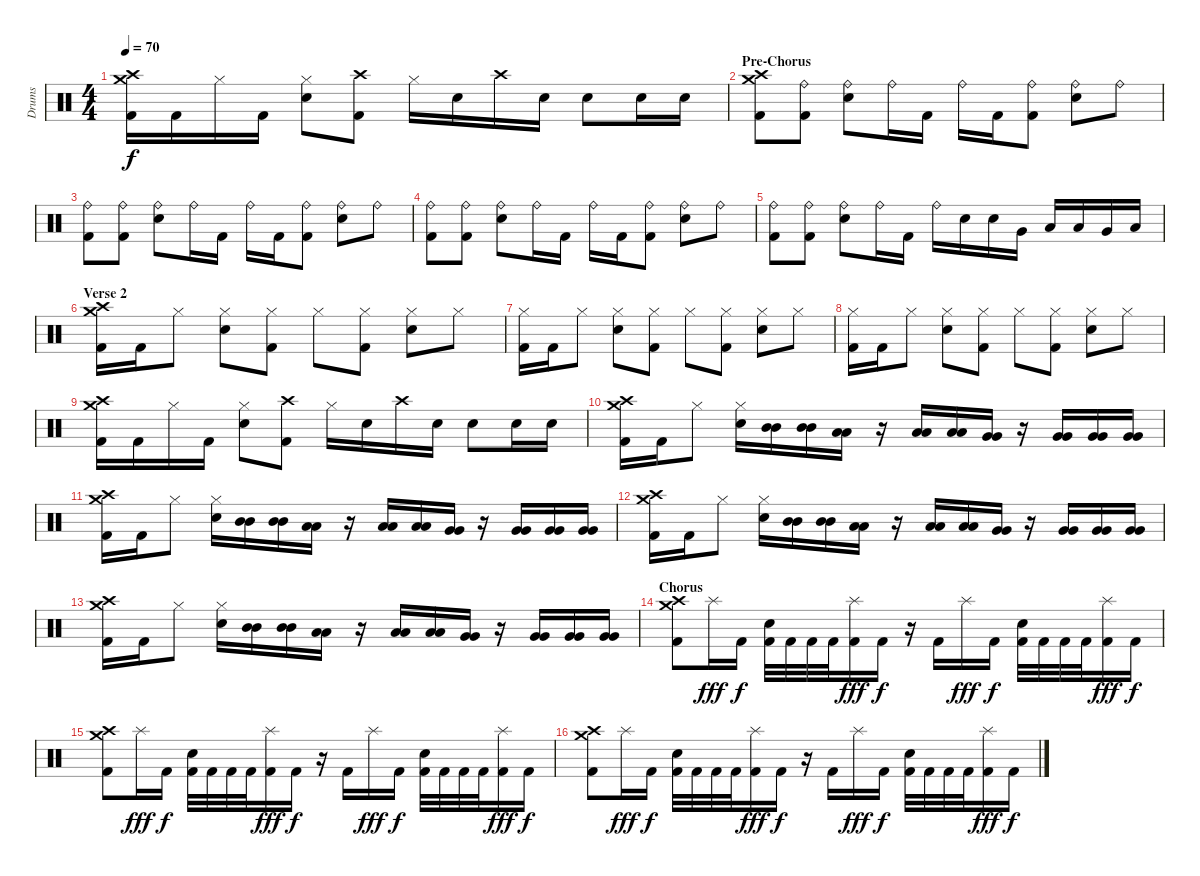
\track ("Drums" "Drums") {instrument percussion}
\staff {score}
\articulation defaults
\ts (4 4)
\tempo 70
\clef neutral
\ks c
("Crash high (hit)" "Crash medium (hit)" "Kick (hit) 2").16{dy f} "Kick (hit) 2".16 "Hi-Hat (closed)".16 "Kick (hit) 2".16 ("Hi-Hat (closed)" "Electric Snare (hit)").8 ("Crash high (hit)" "Kick (hit) 2").8 "Hi-Hat (closed)".16 "Electric Snare (hit)".16 "Crash high (hit)".16 "Electric Snare (hit)".16 "Electric Snare (hit)".8 "Electric Snare (hit)".16 "Electric Snare (hit)".16 |
\section ("" "Pre-Chorus")
("Crash high (hit)" "Crash medium (hit)" "Kick (hit) 2").8 ("Ride (bell)" "Kick (hit) 2").8 ("Ride (bell)" "Electric Snare (hit)").8 "Ride (bell)".16 "Kick (hit) 2".16 "Ride (bell)".16 "Kick (hit) 2".16 ("Ride (bell)" "Kick (hit) 2").8 ("Ride (bell)" "Electric Snare (hit)").8 "Ride (bell)".8 |
("Ride (bell)" "Kick (hit) 2").8 ("Ride (bell)" "Kick (hit) 2").8 ("Ride (bell)" "Electric Snare (hit)").8 "Ride (bell)".16 "Kick (hit) 2".16 "Ride (bell)".16 "Kick (hit) 2".16 ("Ride (bell)" "Kick (hit) 2").8 ("Ride (bell)" "Electric Snare (hit)").8 "Ride (bell)".8 |
("Ride (bell)" "Kick (hit) 2").8 ("Ride (bell)" "Kick (hit) 2").8 ("Ride (bell)" "Electric Snare (hit)").8 "Ride (bell)".16 "Kick (hit) 2".16 "Ride (bell)".16 "Kick (hit) 2".16 ("Ride (bell)" "Kick (hit) 2").8 ("Ride (bell)" "Electric Snare (hit)").8 "Ride (bell)".8 |
("Ride (bell)" "Kick (hit) 2").8 ("Ride (bell)" "Kick (hit) 2").8 ("Ride (bell)" "Electric Snare (hit)").8 "Ride (bell)".16 "Kick (hit) 2".16 "Ride (bell)".16 "Electric Snare (hit)".16 "Electric Snare (hit)".16 "Very Low Tom (hit)".16 "Low Tom (hit)".16 "Low Tom (hit)".16 "Very Low Tom (hit)".16 "Low Floor Tom (hit)".16 |
\section ("" "Verse 2")
("Crash high (hit)" "Crash medium (hit)" "Kick (hit) 2").16 "Kick (hit) 2".16 "Hi-Hat (closed)".8 ("Hi-Hat (closed)" "Electric Snare (hit)").8 ("Hi-Hat (closed)" "Kick (hit) 2").8 "Hi-Hat (closed)".8 ("Hi-Hat (closed)" "Kick (hit) 2").8 ("Hi-Hat (closed)" "Electric Snare (hit)").8 "Hi-Hat (closed)".8 |
("Hi-Hat (closed)" "Kick (hit) 2").16 "Kick (hit) 2".16 "Hi-Hat (closed)".8 ("Hi-Hat (closed)" "Electric Snare (hit)").8 ("Hi-Hat (closed)" "Kick (hit) 2").8 "Hi-Hat (closed)".8 ("Hi-Hat (closed)" "Kick (hit) 2").8 ("Hi-Hat (closed)" "Electric Snare (hit)").8 "Hi-Hat (closed)".8 |
("Hi-Hat (closed)" "Kick (hit) 2").16 "Kick (hit) 2".16 "Hi-Hat (closed)".8 ("Hi-Hat (closed)" "Electric Snare (hit)").8 ("Hi-Hat (closed)" "Kick (hit) 2").8 "Hi-Hat (closed)".8 ("Hi-Hat (closed)" "Kick (hit) 2").8 ("Hi-Hat (closed)" "Electric Snare (hit)").8 "Hi-Hat (closed)".8 |
("Crash high (hit)" "Crash medium (hit)" "Kick (hit) 2").16 "Kick (hit) 2".16 "Hi-Hat (closed)".16 "Kick (hit) 2".16 ("Hi-Hat (closed)" "Electric Snare (hit)").8 ("Crash high (hit)" "Kick (hit) 2").8 "Hi-Hat (closed)".16 "Electric Snare (hit)".16 "Crash high (hit)".16 "Electric Snare (hit)".16 "Electric Snare (hit)".8 "Electric Snare (hit)".16 "Electric Snare (hit)".16 |
("Crash high (hit)" "Crash medium (hit)" "Kick (hit) 2").16 "Kick (hit) 2".16 "Hi-Hat (closed)".8 ("Hi-Hat (closed)" "Electric Snare (hit)").16 ("Mid Tom (hit)" "Mid Tom (hit)").16 ("Mid Tom (hit)" "Mid Tom (hit)").16 ("Low Tom (hit)" "Low Tom (hit)").16 r.16 ("Low Tom (hit)" "Low Tom (hit)").16 ("Low Tom (hit)" "Low Tom (hit)").16 ("Very Low Tom (hit)" "Very Low Tom (hit)").16 r.16 ("Very Low Tom (hit)" "Very Low Tom (hit)").16 ("Very Low Tom (hit)" "Very Low Tom (hit)").16 ("Very Low Tom (hit)" "Very Low Tom (hit)").16 |
("Crash high (hit)" "Crash medium (hit)" "Kick (hit) 2").16 "Kick (hit) 2".16 "Hi-Hat (closed)".8 ("Hi-Hat (closed)" "Electric Snare (hit)").16 ("Mid Tom (hit)" "Mid Tom (hit)").16 ("Mid Tom (hit)" "Mid Tom (hit)").16 ("Low Tom (hit)" "Low Tom (hit)").16 r.16 ("Low Tom (hit)" "Low Tom (hit)").16 ("Low Tom (hit)" "Low Tom (hit)").16 ("Very Low Tom (hit)" "Very Low Tom (hit)").16 r.16 ("Very Low Tom (hit)" "Very Low Tom (hit)").16 ("Very Low Tom (hit)" "Very Low Tom (hit)").16 ("Very Low Tom (hit)" "Very Low Tom (hit)").16 |
("Crash high (hit)" "Crash medium (hit)" "Kick (hit) 2").16 "Kick (hit) 2".16 "Hi-Hat (closed)".8 ("Hi-Hat (closed)" "Electric Snare (hit)").16 ("Mid Tom (hit)" "Mid Tom (hit)").16 ("Mid Tom (hit)" "Mid Tom (hit)").16 ("Low Tom (hit)" "Low Tom (hit)").16 r.16 ("Low Tom (hit)" "Low Tom (hit)").16 ("Low Tom (hit)" "Low Tom (hit)").16 ("Very Low Tom (hit)" "Very Low Tom (hit)").16 r.16 ("Very Low Tom (hit)" "Very Low Tom (hit)").16 ("Very Low Tom (hit)" "Very Low Tom (hit)").16 ("Very Low Tom (hit)" "Very Low Tom (hit)").16 |
("Crash high (hit)" "Crash medium (hit)" "Kick (hit) 2").16 "Kick (hit) 2".16 "Hi-Hat (closed)".8 ("Hi-Hat (closed)" "Electric Snare (hit)").16 ("Mid Tom (hit)" "Mid Tom (hit)").16 ("Mid Tom (hit)" "Mid Tom (hit)").16 ("Low Tom (hit)" "Low Tom (hit)").16 r.16 ("Low Tom (hit)" "Low Tom (hit)").16 ("Low Tom (hit)" "Low Tom (hit)").16 ("Very Low Tom (hit)" "Very Low Tom (hit)").16 r.16 ("Very Low Tom (hit)" "Very Low Tom (hit)").16 ("Very Low Tom (hit)" "Very Low Tom (hit)").16 ("Very Low Tom (hit)" "Very Low Tom (hit)").16 |
\section ("" "Chorus")
("Crash high (hit)" "Crash medium (hit)" "Kick (hit) 2").8 "Splash (hit)".16{dy fff} "Kick (hit) 2".16{dy f} ("Electric Snare (hit)" "Kick (hit) 2").32 "Kick (hit) 2".32 "Kick (hit) 2".32 "Kick (hit) 2".32 ("Splash (hit)" "Kick (hit) 2").16{dy fff} "Kick (hit) 2".16{dy f} r.16 "Kick (hit) 2".16 "Splash (hit)".16{dy fff} "Kick (hit) 2".16{dy f} ("Electric Snare (hit)" "Kick (hit) 2").32 "Kick (hit) 2".32 "Kick (hit) 2".32 "Kick (hit) 2".32 ("Splash (hit)" "Kick (hit) 2").16{dy fff} "Kick (hit) 2".16{dy f} |
("Crash high (hit)" "Crash medium (hit)" "Kick (hit) 2").8 "Splash (hit)".16{dy fff} "Kick (hit) 2".16{dy f} ("Electric Snare (hit)" "Kick (hit) 2").32 "Kick (hit) 2".32 "Kick (hit) 2".32 "Kick (hit) 2".32 ("Splash (hit)" "Kick (hit) 2").16{dy fff} "Kick (hit) 2".16{dy f} r.16 "Kick (hit) 2".16 "Splash (hit)".16{dy fff} "Kick (hit) 2".16{dy f} ("Electric Snare (hit)" "Kick (hit) 2").32 "Kick (hit) 2".32 "Kick (hit) 2".32 "Kick (hit) 2".32 ("Splash (hit)" "Kick (hit) 2").16{dy fff} "Kick (hit) 2".16{dy f} |
("Crash high (hit)" "Crash medium (hit)" "Kick (hit) 2").8 "Splash (hit)".16{dy fff} "Kick (hit) 2".16{dy f} ("Electric Snare (hit)" "Kick (hit) 2").32 "Kick (hit) 2".32 "Kick (hit) 2".32 "Kick (hit) 2".32 ("Splash (hit)" "Kick (hit) 2").16{dy fff} "Kick (hit) 2".16{dy f} r.16 "Kick (hit) 2".16 "Splash (hit)".16{dy fff} "Kick (hit) 2".16{dy f} ("Electric Snare (hit)" "Kick (hit) 2").32 "Kick (hit) 2".32 "Kick (hit) 2".32 "Kick (hit) 2".32 ("Splash (hit)" "Kick (hit) 2").16{dy fff} "Kick (hit) 2".16{dy f}
